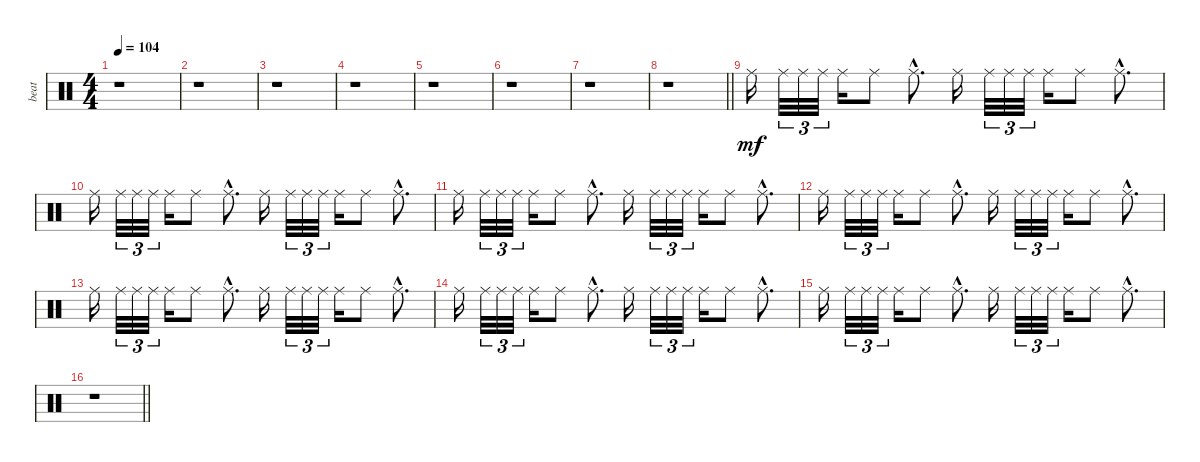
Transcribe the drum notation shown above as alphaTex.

\track ("beat" "beat") {instrument percussion}
\staff {score}
\articulation defaults
\ts (4 4)
\tempo 104
\clef neutral
\ks c
r.1{dy mf} |
r.1 |
r.1 |
r.1 |
r.1 |
r.1 |
r.1 |
\barLineRight lightlight
r.1 |
"Ride (middle)".16 "Ride (middle)".32{tu (3 2)} "Ride (middle)".32{tu (3 2)} "Ride (middle)".32{tu (3 2)} "Ride (middle)".16 "Ride (middle)".8 "Ride (middle)"{hac}.8{d} "Ride (middle)".16 "Ride (middle)".32{tu (3 2)} "Ride (middle)".32{tu (3 2)} "Ride (middle)".32{tu (3 2)} "Ride (middle)".16 "Ride (middle)".8 "Ride (middle)"{hac}.8{d} |
"Ride (middle)".16 "Ride (middle)".32{tu (3 2)} "Ride (middle)".32{tu (3 2)} "Ride (middle)".32{tu (3 2)} "Ride (middle)".16 "Ride (middle)".8 "Ride (middle)"{hac}.8{d} "Ride (middle)".16 "Ride (middle)".32{tu (3 2)} "Ride (middle)".32{tu (3 2)} "Ride (middle)".32{tu (3 2)} "Ride (middle)".16 "Ride (middle)".8 "Ride (middle)"{hac}.8{d} |
"Ride (middle)".16 "Ride (middle)".32{tu (3 2)} "Ride (middle)".32{tu (3 2)} "Ride (middle)".32{tu (3 2)} "Ride (middle)".16 "Ride (middle)".8 "Ride (middle)"{hac}.8{d} "Ride (middle)".16 "Ride (middle)".32{tu (3 2)} "Ride (middle)".32{tu (3 2)} "Ride (middle)".32{tu (3 2)} "Ride (middle)".16 "Ride (middle)".8 "Ride (middle)"{hac}.8{d} |
"Ride (middle)".16 "Ride (middle)".32{tu (3 2)} "Ride (middle)".32{tu (3 2)} "Ride (middle)".32{tu (3 2)} "Ride (middle)".16 "Ride (middle)".8 "Ride (middle)"{hac}.8{d} "Ride (middle)".16 "Ride (middle)".32{tu (3 2)} "Ride (middle)".32{tu (3 2)} "Ride (middle)".32{tu (3 2)} "Ride (middle)".16 "Ride (middle)".8 "Ride (middle)"{hac}.8{d} |
"Ride (middle)".16 "Ride (middle)".32{tu (3 2)} "Ride (middle)".32{tu (3 2)} "Ride (middle)".32{tu (3 2)} "Ride (middle)".16 "Ride (middle)".8 "Ride (middle)"{hac}.8{d} "Ride (middle)".16 "Ride (middle)".32{tu (3 2)} "Ride (middle)".32{tu (3 2)} "Ride (middle)".32{tu (3 2)} "Ride (middle)".16 "Ride (middle)".8 "Ride (middle)"{hac}.8{d} |
"Ride (middle)".16 "Ride (middle)".32{tu (3 2)} "Ride (middle)".32{tu (3 2)} "Ride (middle)".32{tu (3 2)} "Ride (middle)".16 "Ride (middle)".8 "Ride (middle)"{hac}.8{d} "Ride (middle)".16 "Ride (middle)".32{tu (3 2)} "Ride (middle)".32{tu (3 2)} "Ride (middle)".32{tu (3 2)} "Ride (middle)".16 "Ride (middle)".8 "Ride (middle)"{hac}.8{d} |
"Ride (middle)".16 "Ride (middle)".32{tu (3 2)} "Ride (middle)".32{tu (3 2)} "Ride (middle)".32{tu (3 2)} "Ride (middle)".16 "Ride (middle)".8 "Ride (middle)"{hac}.8{d} "Ride (middle)".16 "Ride (middle)".32{tu (3 2)} "Ride (middle)".32{tu (3 2)} "Ride (middle)".32{tu (3 2)} "Ride (middle)".16 "Ride (middle)".8 "Ride (middle)"{hac}.8{d} |
\barLineRight lightlight
r.1
